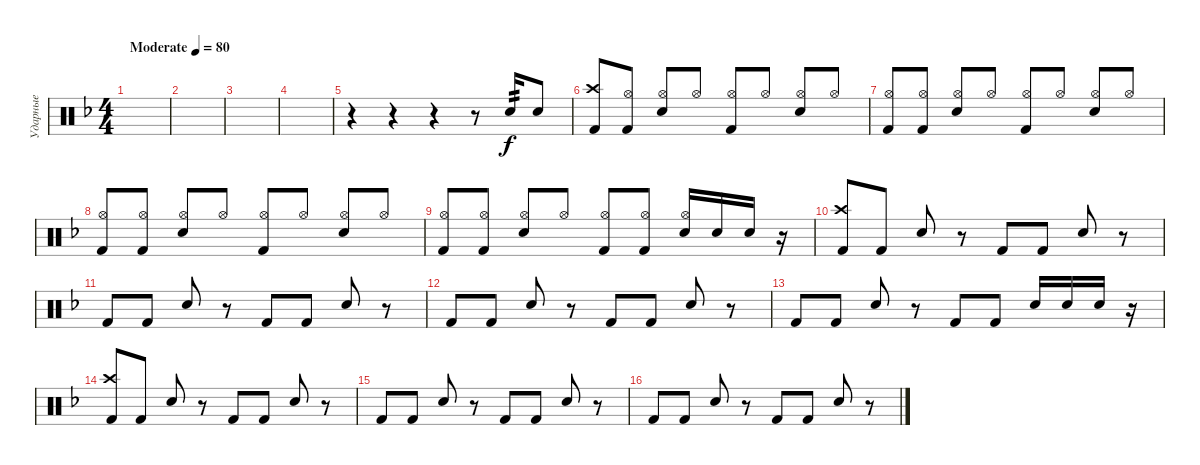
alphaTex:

\track ("Ударные" "Ударные") {instrument percussion}
\staff {score}
\articulation defaults
\ts (4 4)
\tempo (80 "Moderate")
\clef neutral
\ks f
|
|
|
|
r.4 r.4 r.4 r.8 "Snare (hit) 2".16{tp 2} "Snare (hit) 2".8{beam Up} |
("Crash high (hit)" "Kick (hit) 2").8{beam Up} ("Hi-Hat (open)" "Kick (hit) 2").8{beam Up} ("Hi-Hat (open)" "Snare (hit) 2").8{beam Up} "Hi-Hat (open)".8{beam Up} ("Hi-Hat (open)" "Kick (hit) 2").8{beam Up} "Hi-Hat (open)".8{beam Up} ("Hi-Hat (open)" "Snare (hit) 2").8{beam Up} "Hi-Hat (open)".8{beam Up} |
("Hi-Hat (open)" "Kick (hit) 2").8{beam Up} ("Hi-Hat (open)" "Kick (hit) 2").8{beam Up} ("Hi-Hat (open)" "Snare (hit) 2").8{beam Up} "Hi-Hat (open)".8{beam Up} ("Hi-Hat (open)" "Kick (hit) 2").8{beam Up} "Hi-Hat (open)".8{beam Up} ("Hi-Hat (open)" "Snare (hit) 2").8{beam Up} "Hi-Hat (open)".8{beam Up} |
("Hi-Hat (open)" "Kick (hit) 2").8{beam Up} ("Hi-Hat (open)" "Kick (hit) 2").8{beam Up} ("Hi-Hat (open)" "Snare (hit) 2").8{beam Up} "Hi-Hat (open)".8{beam Up} ("Hi-Hat (open)" "Kick (hit) 2").8{beam Up} "Hi-Hat (open)".8{beam Up} ("Hi-Hat (open)" "Snare (hit) 2").8{beam Up} "Hi-Hat (open)".8{beam Up} |
("Hi-Hat (open)" "Kick (hit) 2").8{beam Up} ("Hi-Hat (open)" "Kick (hit) 2").8{beam Up} ("Hi-Hat (open)" "Snare (hit) 2").8{beam Up} "Hi-Hat (open)".8{beam Up} ("Hi-Hat (open)" "Kick (hit) 2").8{beam Up} ("Hi-Hat (open)" "Kick (hit) 2").8{beam Up} ("Hi-Hat (open)" "Snare (hit) 2").16{beam Up} "Snare (hit) 2".16{beam Up} "Snare (hit) 2".16{beam Up} r.16 |
("Crash high (hit)" "Kick (hit) 2").8{beam Up} "Kick (hit) 2".8{beam Up} "Snare (hit) 2".8{beam Up} r.8 "Kick (hit) 2".8 "Kick (hit) 2".8 "Snare (hit) 2".8{beam Up} r.8 |
"Kick (hit) 2".8 "Kick (hit) 2".8 "Snare (hit) 2".8{beam Up} r.8 "Kick (hit) 2".8 "Kick (hit) 2".8 "Snare (hit) 2".8{beam Up} r.8 |
"Kick (hit) 2".8 "Kick (hit) 2".8 "Snare (hit) 2".8{beam Up} r.8 "Kick (hit) 2".8 "Kick (hit) 2".8 "Snare (hit) 2".8{beam Up} r.8 |
"Kick (hit) 2".8 "Kick (hit) 2".8 "Snare (hit) 2".8{beam Up} r.8 "Kick (hit) 2".8 "Kick (hit) 2".8 "Snare (hit) 2".16{beam Up} "Snare (hit) 2".16{beam Up} "Snare (hit) 2".16{beam Up} r.16 |
("Crash high (hit)" "Kick (hit) 2").8{beam Up} "Kick (hit) 2".8{beam Up} "Snare (hit) 2".8{beam Up} r.8 "Kick (hit) 2".8 "Kick (hit) 2".8 "Snare (hit) 2".8{beam Up} r.8 |
"Kick (hit) 2".8 "Kick (hit) 2".8 "Snare (hit) 2".8{beam Up} r.8 "Kick (hit) 2".8 "Kick (hit) 2".8 "Snare (hit) 2".8{beam Up} r.8 |
"Kick (hit) 2".8 "Kick (hit) 2".8 "Snare (hit) 2".8{beam Up} r.8 "Kick (hit) 2".8 "Kick (hit) 2".8 "Snare (hit) 2".8{beam Up} r.8
